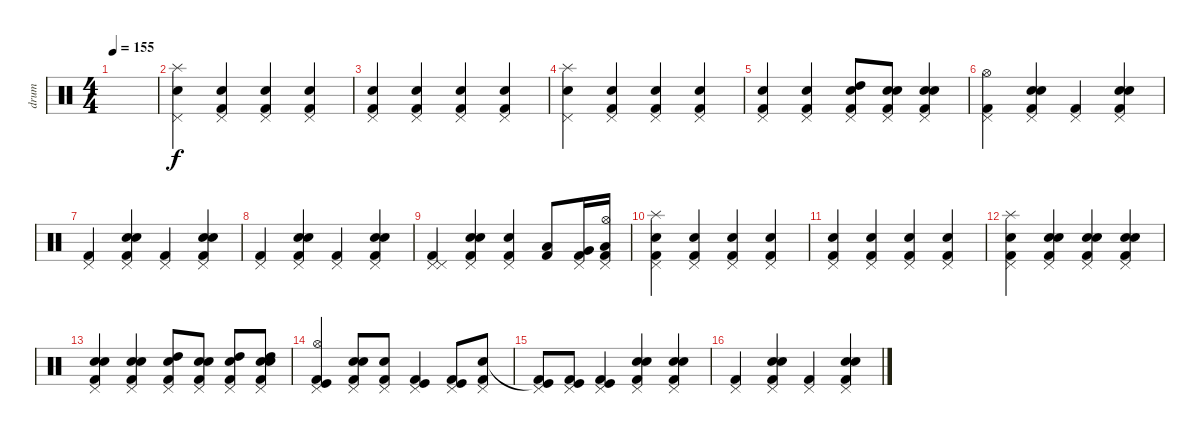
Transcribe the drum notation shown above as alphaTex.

\track ("drum" "drum") {instrument percussion}
\staff {score}
\articulation defaults
\ts (4 4)
\tempo 155
\clef neutral
\ks c
|
("Splash (hit)" "Snare (hit) 2" "Pedal Hi-Hat (hit)").4 ("Electric Snare (hit)" "Pedal Hi-Hat (hit)" "Kick (hit) 2").4 ("Electric Snare (hit)" "Pedal Hi-Hat (hit)" "Kick (hit) 2").4 ("Electric Snare (hit)" "Pedal Hi-Hat (hit)" "Kick (hit) 2").4 |
("Electric Snare (hit)" "Pedal Hi-Hat (hit)" "Kick (hit) 2").4 ("Electric Snare (hit)" "Pedal Hi-Hat (hit)" "Kick (hit) 2").4 ("Electric Snare (hit)" "Pedal Hi-Hat (hit)" "Kick (hit) 2").4 ("Electric Snare (hit)" "Pedal Hi-Hat (hit)" "Kick (hit) 2").4 |
("Splash (hit)" "Snare (hit) 2" "Pedal Hi-Hat (hit)").4 ("Electric Snare (hit)" "Pedal Hi-Hat (hit)" "Kick (hit) 2").4 ("Electric Snare (hit)" "Pedal Hi-Hat (hit)" "Kick (hit) 2").4 ("Electric Snare (hit)" "Pedal Hi-Hat (hit)" "Kick (hit) 2").4 |
("Electric Snare (hit)" "Pedal Hi-Hat (hit)" "Kick (hit) 2").4 ("Electric Snare (hit)" "Pedal Hi-Hat (hit)" "Kick (hit) 2").4 ("Electric Snare (hit)" "Pedal Hi-Hat (hit)" "High Tom (hit)" "Kick (hit) 2").8 ("Snare (hit) 2" "Electric Snare (hit)" "Pedal Hi-Hat (hit)" "Kick (hit) 2").8 ("Snare (hit) 2" "Electric Snare (hit)" "Pedal Hi-Hat (hit)" "Kick (hit) 2").4 |
("Pedal Hi-Hat (hit)" "Hi-Hat (open)" "Kick (hit) 2").4 ("Pedal Hi-Hat (hit)" "Electric Snare (hit)" "Snare (hit) 2" "Kick (hit) 2").4 ("Pedal Hi-Hat (hit)" "Kick (hit) 2").4 ("Pedal Hi-Hat (hit)" "Electric Snare (hit)" "Snare (hit) 2" "Kick (hit) 2").4 |
("Pedal Hi-Hat (hit)" "Kick (hit) 2").4 ("Pedal Hi-Hat (hit)" "Electric Snare (hit)" "Snare (hit) 2" "Kick (hit) 2").4 ("Pedal Hi-Hat (hit)" "Kick (hit) 2").4 ("Pedal Hi-Hat (hit)" "Electric Snare (hit)" "Snare (hit) 2" "Kick (hit) 2").4 |
("Pedal Hi-Hat (hit)" "Kick (hit) 2").4 ("Pedal Hi-Hat (hit)" "Electric Snare (hit)" "Snare (hit) 2" "Kick (hit) 2").4 ("Pedal Hi-Hat (hit)" "Kick (hit) 2").4 ("Pedal Hi-Hat (hit)" "Electric Snare (hit)" "Snare (hit) 2" "Kick (hit) 2").4 |
("Pedal Hi-Hat (hit)" "Pedal Hi-Hat (hit)" "Kick (hit) 2").4 ("Pedal Hi-Hat (hit)" "Electric Snare (hit)" "Snare (hit) 2" "Kick (hit) 2").4 ("Electric Snare (hit)" "Pedal Hi-Hat (hit)" "Kick (hit) 2").4 ("Low Floor Tom (hit)" "Kick (hit) 2").8 ("Pedal Hi-Hat (hit)" "Very Low Tom (hit)" "Kick (hit) 2").16 ("Pedal Hi-Hat (hit)" "Hi-Hat (open)" "Low Tom (hit)" "Kick (hit) 2").16 |
("Splash (hit)" "Snare (hit) 2" "Pedal Hi-Hat (hit)" "Kick (hit) 2").4 ("Electric Snare (hit)" "Pedal Hi-Hat (hit)" "Kick (hit) 2").4 ("Electric Snare (hit)" "Pedal Hi-Hat (hit)" "Kick (hit) 2").4 ("Electric Snare (hit)" "Pedal Hi-Hat (hit)" "Kick (hit) 2").4 |
("Electric Snare (hit)" "Pedal Hi-Hat (hit)" "Kick (hit) 2").4 ("Electric Snare (hit)" "Pedal Hi-Hat (hit)" "Kick (hit) 2").4 ("Electric Snare (hit)" "Pedal Hi-Hat (hit)" "Kick (hit) 2").4 ("Electric Snare (hit)" "Pedal Hi-Hat (hit)" "Kick (hit) 2").4 |
("Splash (hit)" "Snare (hit) 2" "Pedal Hi-Hat (hit)" "Kick (hit) 2").4 ("Electric Snare (hit)" "Pedal Hi-Hat (hit)" "Snare (hit) 2" "Kick (hit) 2").4 ("Electric Snare (hit)" "Pedal Hi-Hat (hit)" "Snare (hit) 2" "Kick (hit) 2").4 ("Electric Snare (hit)" "Pedal Hi-Hat (hit)" "Snare (hit) 2" "Kick (hit) 2").4 |
("Electric Snare (hit)" "Pedal Hi-Hat (hit)" "Snare (hit) 2" "Kick (hit) 2").4 ("Electric Snare (hit)" "Pedal Hi-Hat (hit)" "Snare (hit) 2" "Kick (hit) 2").4 ("Electric Snare (hit)" "Pedal Hi-Hat (hit)" "High Tom (hit)" "Kick (hit) 2").8 ("Snare (hit) 2" "Electric Snare (hit)" "Pedal Hi-Hat (hit)" "Kick (hit) 2").8 ("Electric Snare (hit)" "Pedal Hi-Hat (hit)" "High Tom (hit)" "Kick (hit) 2").8 ("Electric Snare (hit)" "Snare (hit) 2" "Pedal Hi-Hat (hit)" "High Tom (hit)" "Kick (hit) 2").8 |
("Pedal Hi-Hat (hit)" "Hi-Hat (open)" "Kick (hit)" "Kick (hit) 2").4 ("Pedal Hi-Hat (hit)" "Electric Snare (hit)" "Snare (hit) 2" "Kick (hit) 2").8 ("Pedal Hi-Hat (hit)" "Snare (hit) 2" "Kick (hit) 2").8 ("Pedal Hi-Hat (hit)" "Kick (hit)" "Kick (hit) 2").4 ("Pedal Hi-Hat (hit)" "Kick (hit)" "Kick (hit) 2").8 ("Pedal Hi-Hat (hit)" "Snare (hit) 2" "Kick (hit) 2").8 |
("Pedal Hi-Hat (hit)" "Kick (hit)"{t} "Kick (hit) 2").8 ("Pedal Hi-Hat (hit)" "Kick (hit)" "Kick (hit) 2").8 ("Pedal Hi-Hat (hit)" "Kick (hit)" "Kick (hit) 2").4 ("Pedal Hi-Hat (hit)" "Electric Snare (hit)" "Snare (hit) 2" "Kick (hit) 2").4 ("Pedal Hi-Hat (hit)" "Electric Snare (hit)" "Snare (hit) 2" "Kick (hit) 2").4 |
("Pedal Hi-Hat (hit)" "Kick (hit) 2").4 ("Pedal Hi-Hat (hit)" "Electric Snare (hit)" "Snare (hit) 2" "Kick (hit) 2").4 ("Pedal Hi-Hat (hit)" "Kick (hit) 2").4 ("Pedal Hi-Hat (hit)" "Electric Snare (hit)" "Snare (hit) 2" "Kick (hit) 2").4
